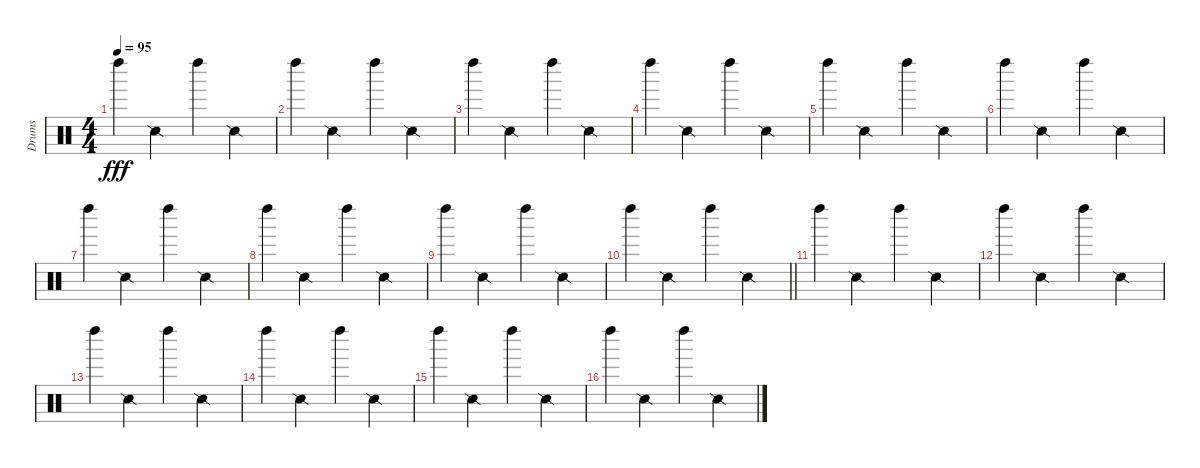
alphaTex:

\track ("Drums" "Drums") {instrument percussion}
\staff {score}
\articulation defaults
\ts (4 4)
\tempo 95
\clef neutral
\ks c "Left Maraca (hit)".4{dy fff} "Snare (side stick) 2".4 "Left Maraca (hit)".4 "Snare (side stick) 2".4
|
"Left Maraca (hit)".4 "Snare (side stick) 2".4 "Left Maraca (hit)".4 "Snare (side stick) 2".4 |
"Left Maraca (hit)".4 "Snare (side stick) 2".4 "Left Maraca (hit)".4 "Snare (side stick) 2".4 |
"Left Maraca (hit)".4 "Snare (side stick) 2".4 "Left Maraca (hit)".4 "Snare (side stick) 2".4 |
"Left Maraca (hit)".4 "Snare (side stick) 2".4 "Left Maraca (hit)".4 "Snare (side stick) 2".4 |
"Left Maraca (hit)".4 "Snare (side stick) 2".4 "Left Maraca (hit)".4 "Snare (side stick) 2".4 |
"Left Maraca (hit)".4 "Snare (side stick) 2".4 "Left Maraca (hit)".4 "Snare (side stick) 2".4 |
"Left Maraca (hit)".4 "Snare (side stick) 2".4 "Left Maraca (hit)".4 "Snare (side stick) 2".4 |
"Left Maraca (hit)".4 "Snare (side stick) 2".4 "Left Maraca (hit)".4 "Snare (side stick) 2".4 |
\barLineRight lightlight "Left Maraca (hit)".4 "Snare (side stick) 2".4 "Left Maraca (hit)".4 "Snare (side stick) 2".4
|
"Left Maraca (hit)".4 "Snare (side stick) 2".4 "Left Maraca (hit)".4 "Snare (side stick) 2".4 |
"Left Maraca (hit)".4 "Snare (side stick) 2".4 "Left Maraca (hit)".4 "Snare (side stick) 2".4 |
"Left Maraca (hit)".4 "Snare (side stick) 2".4 "Left Maraca (hit)".4 "Snare (side stick) 2".4 |
"Left Maraca (hit)".4 "Snare (side stick) 2".4 "Left Maraca (hit)".4 "Snare (side stick) 2".4 |
"Left Maraca (hit)".4 "Snare (side stick) 2".4 "Left Maraca (hit)".4 "Snare (side stick) 2".4 |
"Left Maraca (hit)".4 "Snare (side stick) 2".4 "Left Maraca (hit)".4 "Snare (side stick) 2".4
